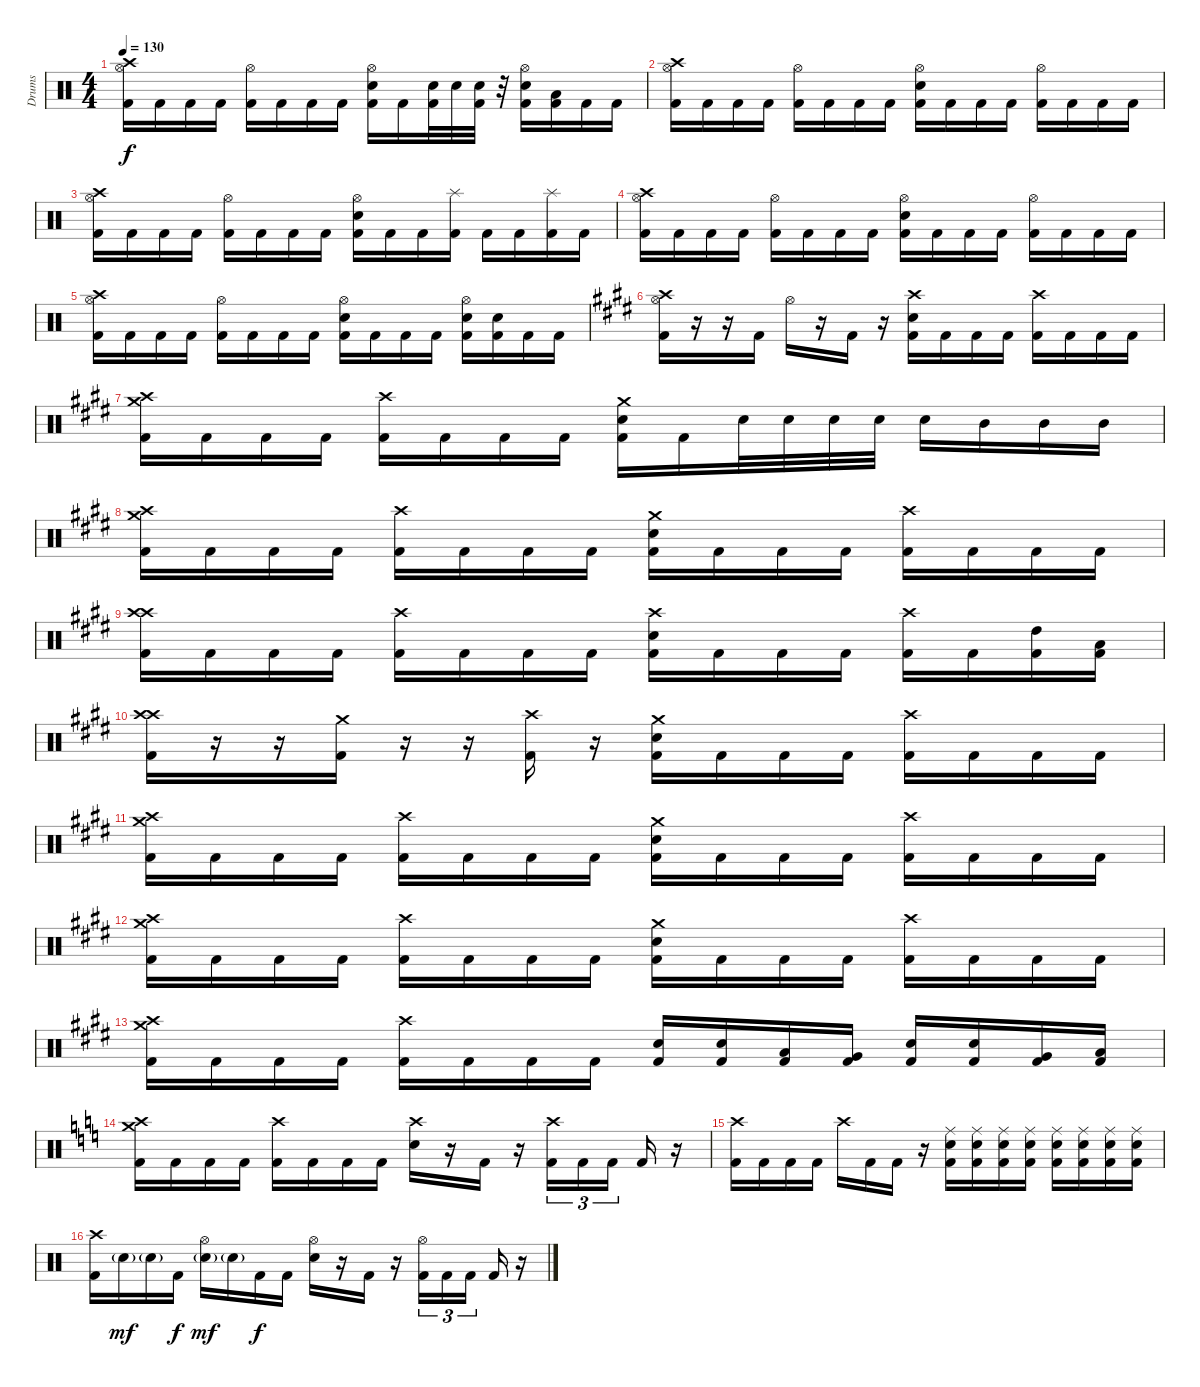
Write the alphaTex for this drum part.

\track ("Drums" "Drums") {instrument percussion}
\staff {score}
\articulation defaults
\ts (4 4)
\tempo 130
\clef neutral
\ks c
("Crash high (hit)" "Hi-Hat (open)" "Kick (hit) 2").16{dy f} "Kick (hit) 2".16 "Kick (hit) 2".16 "Kick (hit) 2".16 ("Hi-Hat (open)" "Kick (hit) 2").16 "Kick (hit) 2".16 "Kick (hit) 2".16 "Kick (hit) 2".16 ("Hi-Hat (open)" "Electric Snare (hit)" "Kick (hit) 2").16 "Kick (hit) 2".16 ("Electric Snare (hit)" "Kick (hit) 2").32 "Electric Snare (hit)".32 ("Electric Snare (hit)" "Kick (hit) 2").32 r.32 ("Hi-Hat (open)" "Electric Snare (hit)" "Kick (hit) 2").16 ("Low Tom (hit)" "Kick (hit) 2").16 "Kick (hit) 2".16 "Kick (hit) 2".16 |
("Crash high (hit)" "Hi-Hat (open)" "Kick (hit) 2").16 "Kick (hit) 2".16 "Kick (hit) 2".16 "Kick (hit) 2".16 ("Hi-Hat (open)" "Kick (hit) 2").16 "Kick (hit) 2".16 "Kick (hit) 2".16 "Kick (hit) 2".16 ("Hi-Hat (open)" "Electric Snare (hit)" "Kick (hit) 2").16 "Kick (hit) 2".16 "Kick (hit) 2".16 "Kick (hit) 2".16 ("Hi-Hat (open)" "Kick (hit) 2").16 "Kick (hit) 2".16 "Kick (hit) 2".16 "Kick (hit) 2".16 |
("Crash high (hit)" "Hi-Hat (open)" "Kick (hit) 2").16 "Kick (hit) 2".16 "Kick (hit) 2".16 "Kick (hit) 2".16 ("Hi-Hat (open)" "Kick (hit) 2").16 "Kick (hit) 2".16 "Kick (hit) 2".16 "Kick (hit) 2".16 ("Hi-Hat (open)" "Electric Snare (hit)" "Kick (hit) 2").16 "Kick (hit) 2".16 "Kick (hit) 2".16 ("Splash (hit)" "Kick (hit) 2").16 "Kick (hit) 2".16 "Kick (hit) 2".16 ("Splash (hit)" "Kick (hit) 2").16 "Kick (hit) 2".16 |
("Crash high (hit)" "Hi-Hat (open)" "Kick (hit) 2").16 "Kick (hit) 2".16 "Kick (hit) 2".16 "Kick (hit) 2".16 ("Hi-Hat (open)" "Kick (hit) 2").16 "Kick (hit) 2".16 "Kick (hit) 2".16 "Kick (hit) 2".16 ("Hi-Hat (open)" "Electric Snare (hit)" "Kick (hit) 2").16 "Kick (hit) 2".16 "Kick (hit) 2".16 "Kick (hit) 2".16 ("Hi-Hat (open)" "Kick (hit) 2").16 "Kick (hit) 2".16 "Kick (hit) 2".16 "Kick (hit) 2".16 |
("Crash high (hit)" "Hi-Hat (open)" "Kick (hit) 2").16 "Kick (hit) 2".16 "Kick (hit) 2".16 "Kick (hit) 2".16 ("Hi-Hat (open)" "Kick (hit) 2").16 "Kick (hit) 2".16 "Kick (hit) 2".16 "Kick (hit) 2".16 ("Hi-Hat (open)" "Electric Snare (hit)" "Kick (hit) 2").16 "Kick (hit) 2".16 "Kick (hit) 2".16 "Kick (hit) 2".16 ("Hi-Hat (open)" "Electric Snare (hit)" "Kick (hit) 2").16 ("Electric Snare (hit)" "Kick (hit) 2").16 "Kick (hit) 2".16 "Kick (hit) 2".16 |
\ks c#minor
("Crash high (hit)" "Hi-Hat (open)" "Kick (hit) 2").16 r.16 r.16 "Kick (hit) 2".16 "Hi-Hat (open)".16 r.16 "Kick (hit) 2".16 r.16 ("Crash high (hit)" "Electric Snare (hit)" "Kick (hit) 2").16 "Kick (hit) 2".16 "Kick (hit) 2".16 "Kick (hit) 2".16 ("Crash high (hit)" "Kick (hit) 2").16 "Kick (hit) 2".16 "Kick (hit) 2".16 "Kick (hit) 2".16 |
("Crash high (hit)" "Crash medium (hit)" "Kick (hit) 2").16 "Kick (hit) 2".16 "Kick (hit) 2".16 "Kick (hit) 2".16 ("Crash high (hit)" "Kick (hit) 2").16 "Kick (hit) 2".16 "Kick (hit) 2".16 "Kick (hit) 2".16 ("Crash medium (hit)" "Electric Snare (hit)" "Kick (hit) 2").16 "Kick (hit) 2".16 "Electric Snare (hit)".32 "Electric Snare (hit)".32 "Electric Snare (hit)".32 "Electric Snare (hit)".32 "Electric Snare (hit)".16 "Mid Tom (hit)".16 "Mid Tom (hit)".16 "Mid Tom (hit)".16 |
("Crash high (hit)" "Crash medium (hit)" "Kick (hit) 2").16 "Kick (hit) 2".16 "Kick (hit) 2".16 "Kick (hit) 2".16 ("Crash high (hit)" "Kick (hit) 2").16 "Kick (hit) 2".16 "Kick (hit) 2".16 "Kick (hit) 2".16 ("Crash medium (hit)" "Electric Snare (hit)" "Kick (hit) 2").16 "Kick (hit) 2".16 "Kick (hit) 2".16 "Kick (hit) 2".16 ("Crash high (hit)" "Kick (hit) 2").16 "Kick (hit) 2".16 "Kick (hit) 2".16 "Kick (hit) 2".16 |
("Crash high (hit)" "Crash high (hit)" "Kick (hit) 2").16 "Kick (hit) 2".16 "Kick (hit) 2".16 "Kick (hit) 2".16 ("Crash high (hit)" "Kick (hit) 2").16 "Kick (hit) 2".16 "Kick (hit) 2".16 "Kick (hit) 2".16 ("Crash high (hit)" "Electric Snare (hit)" "Kick (hit) 2").16 "Kick (hit) 2".16 "Kick (hit) 2".16 "Kick (hit) 2".16 ("Crash high (hit)" "Kick (hit) 2").16 "Kick (hit) 2".16 ("High Tom (hit)" "Kick (hit) 2").16 ("Low Tom (hit)" "Kick (hit) 2").16 |
("Crash high (hit)" "Crash high (hit)" "Kick (hit) 2").16 r.16 r.16 ("Crash medium (hit)" "Kick (hit) 2").16 r.16 r.16 ("Crash high (hit)" "Kick (hit) 2").16 r.16 ("Crash medium (hit)" "Electric Snare (hit)" "Kick (hit) 2").16 "Kick (hit) 2".16 "Kick (hit) 2".16 "Kick (hit) 2".16 ("Crash high (hit)" "Kick (hit) 2").16 "Kick (hit) 2".16 "Kick (hit) 2".16 "Kick (hit) 2".16 |
("Crash high (hit)" "Crash medium (hit)" "Kick (hit) 2").16 "Kick (hit) 2".16 "Kick (hit) 2".16 "Kick (hit) 2".16 ("Crash high (hit)" "Kick (hit) 2").16 "Kick (hit) 2".16 "Kick (hit) 2".16 "Kick (hit) 2".16 ("Crash medium (hit)" "Electric Snare (hit)" "Kick (hit) 2").16 "Kick (hit) 2".16 "Kick (hit) 2".16 "Kick (hit) 2".16 ("Crash high (hit)" "Kick (hit) 2").16 "Kick (hit) 2".16 "Kick (hit) 2".16 "Kick (hit) 2".16 |
("Crash high (hit)" "Crash medium (hit)" "Kick (hit) 2").16 "Kick (hit) 2".16 "Kick (hit) 2".16 "Kick (hit) 2".16 ("Crash high (hit)" "Kick (hit) 2").16 "Kick (hit) 2".16 "Kick (hit) 2".16 "Kick (hit) 2".16 ("Crash medium (hit)" "Electric Snare (hit)" "Kick (hit) 2").16 "Kick (hit) 2".16 "Kick (hit) 2".16 "Kick (hit) 2".16 ("Crash high (hit)" "Kick (hit) 2").16 "Kick (hit) 2".16 "Kick (hit) 2".16 "Kick (hit) 2".16 |
("Crash high (hit)" "Crash medium (hit)" "Kick (hit) 2").16 "Kick (hit) 2".16 "Kick (hit) 2".16 "Kick (hit) 2".16 ("Crash high (hit)" "Kick (hit) 2").16 "Kick (hit) 2".16 "Kick (hit) 2".16 "Kick (hit) 2".16 ("Electric Snare (hit)" "Kick (hit) 2").16 ("Electric Snare (hit)" "Kick (hit) 2").16 ("Low Tom (hit)" "Kick (hit) 2").16 ("Very Low Tom (hit)" "Kick (hit) 2").16 ("Electric Snare (hit)" "Kick (hit) 2").16 ("Electric Snare (hit)" "Kick (hit) 2").16 ("Very Low Tom (hit)" "Kick (hit) 2").16 ("Low Tom (hit)" "Kick (hit) 2").16 |
\ks c
("Crash high (hit)" "Crash medium (hit)" "Kick (hit) 2").16 "Kick (hit) 2".16 "Kick (hit) 2".16 "Kick (hit) 2".16 ("Crash high (hit)" "Kick (hit) 2").16 "Kick (hit) 2".16 "Kick (hit) 2".16 "Kick (hit) 2".16 ("Crash high (hit)" "Electric Snare (hit)").16 r.16 "Kick (hit) 2".16 r.16 ("Crash high (hit)" "Kick (hit) 2").16{tu (3 2)} "Kick (hit) 2".16{tu (3 2)} "Kick (hit) 2".16{tu (3 2) beam splitsecondary} "Kick (hit) 2".16 r.16 |
("Crash high (hit)" "Kick (hit) 2").16 "Kick (hit) 2".16 "Kick (hit) 2".16 "Kick (hit) 2".16 "Crash high (hit)".16 "Kick (hit) 2".16 "Kick (hit) 2".16 r.16 ("Ride (middle)" "Electric Snare (hit)" "Kick (hit) 2").16 ("Ride (middle)" "Electric Snare (hit)" "Kick (hit) 2").16 ("Ride (middle)" "Electric Snare (hit)" "Kick (hit) 2").16 ("Ride (middle)" "Electric Snare (hit)" "Kick (hit) 2").16 ("Ride (middle)" "Electric Snare (hit)" "Kick (hit) 2").16 ("Ride (middle)" "Electric Snare (hit)" "Kick (hit) 2").16 ("Ride (middle)" "Electric Snare (hit)" "Kick (hit) 2").16 ("Ride (middle)" "Electric Snare (hit)" "Kick (hit) 2").16 |
("Crash high (hit)" "Kick (hit) 2").16 "Electric Snare (hit)"{g}.16{dy mf} "Electric Snare (hit)"{g}.16 "Kick (hit) 2".16{dy f} ("Hi-Hat (open)" "Electric Snare (hit)"{g}).16{dy mf} "Electric Snare (hit)"{g}.16 "Kick (hit) 2".16{dy f} "Kick (hit) 2".16 ("Hi-Hat (open)" "Electric Snare (hit)").16 r.16 "Kick (hit) 2".16 r.16 ("Hi-Hat (open)" "Kick (hit) 2").16{tu (3 2)} "Kick (hit) 2".16{tu (3 2)} "Kick (hit) 2".16{tu (3 2) beam splitsecondary} "Kick (hit) 2".16 r.16
